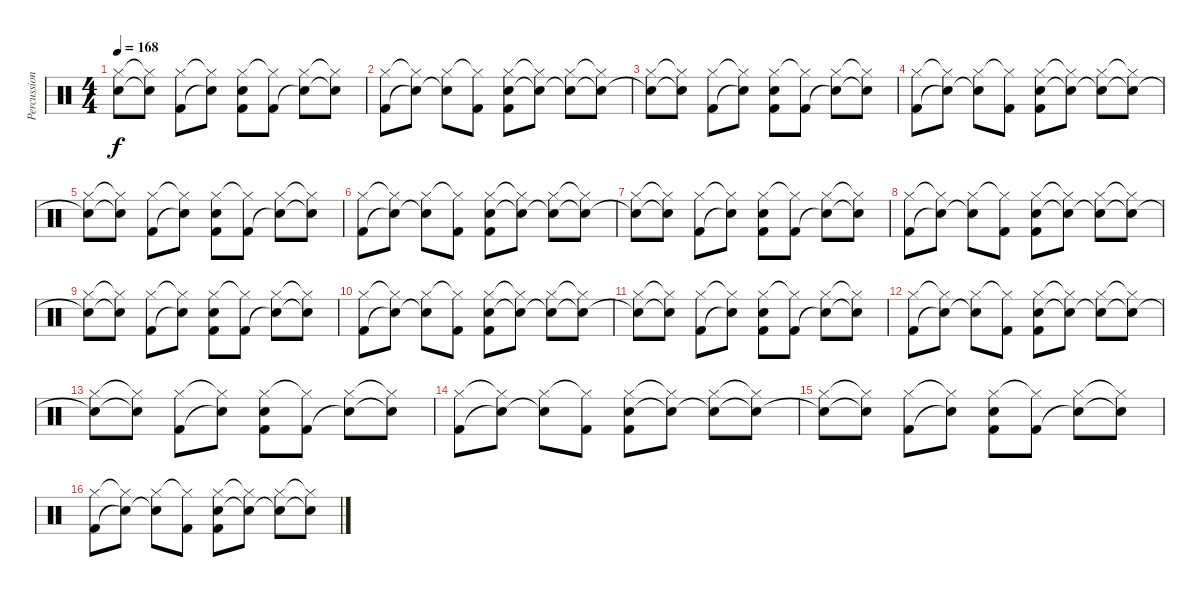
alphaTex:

\track ("Percussion" "Percussion") {instrument percussion}
\staff {score}
\articulation defaults
\ts (4 4)
\tempo 168
\clef neutral
\ks c
("Hi-Hat (closed)" "Snare (hit)"{t}).8{dy f} ("Hi-Hat (closed)"{t} "Snare (hit)"{t}).8 ("Hi-Hat (closed)" "Kick (hit) 2").8 ("Hi-Hat (closed)"{t} "Snare (hit)"{t}).8 ("Hi-Hat (closed)" "Electric Snare (hit)" "Kick (hit) 2").8 ("Hi-Hat (closed)"{t} "Kick (hit) 2").8 ("Hi-Hat (closed)" "Snare (hit)"{t}).8 ("Hi-Hat (closed)"{t} "Snare (hit)"{t}).8 |
("Hi-Hat (closed)" "Kick (hit) 2").8 ("Hi-Hat (closed)"{t} "Snare (hit)"{t}).8 ("Hi-Hat (closed)" "Snare (hit)"{t}).8 ("Hi-Hat (closed)"{t} "Kick (hit) 2").8 ("Hi-Hat (closed)" "Electric Snare (hit)" "Kick (hit) 2").8 ("Hi-Hat (closed)"{t} "Snare (hit)"{t}).8 ("Hi-Hat (closed)" "Snare (hit)"{t}).8 ("Hi-Hat (closed)"{t} "Snare (hit)"{t}).8 |
("Hi-Hat (closed)" "Snare (hit)"{t}).8 ("Hi-Hat (closed)"{t} "Snare (hit)"{t}).8 ("Hi-Hat (closed)" "Kick (hit) 2").8 ("Hi-Hat (closed)"{t} "Snare (hit)"{t}).8 ("Hi-Hat (closed)" "Electric Snare (hit)" "Kick (hit) 2").8 ("Hi-Hat (closed)"{t} "Kick (hit) 2").8 ("Hi-Hat (closed)" "Snare (hit)"{t}).8 ("Hi-Hat (closed)"{t} "Snare (hit)"{t}).8 |
("Hi-Hat (closed)" "Kick (hit) 2").8 ("Hi-Hat (closed)"{t} "Snare (hit)"{t}).8 ("Hi-Hat (closed)" "Snare (hit)"{t}).8 ("Hi-Hat (closed)"{t} "Kick (hit) 2").8 ("Hi-Hat (closed)" "Electric Snare (hit)" "Kick (hit) 2").8 ("Hi-Hat (closed)"{t} "Snare (hit)"{t}).8 ("Hi-Hat (closed)" "Snare (hit)"{t}).8 ("Hi-Hat (closed)"{t} "Snare (hit)"{t}).8 |
("Hi-Hat (closed)" "Snare (hit)"{t}).8 ("Hi-Hat (closed)"{t} "Snare (hit)"{t}).8 ("Hi-Hat (closed)" "Kick (hit) 2").8 ("Hi-Hat (closed)"{t} "Snare (hit)"{t}).8 ("Hi-Hat (closed)" "Electric Snare (hit)" "Kick (hit) 2").8 ("Hi-Hat (closed)"{t} "Kick (hit) 2").8 ("Hi-Hat (closed)" "Snare (hit)"{t}).8 ("Hi-Hat (closed)"{t} "Snare (hit)"{t}).8 |
("Hi-Hat (closed)" "Kick (hit) 2").8 ("Hi-Hat (closed)"{t} "Snare (hit)"{t}).8 ("Hi-Hat (closed)" "Snare (hit)"{t}).8 ("Hi-Hat (closed)"{t} "Kick (hit) 2").8 ("Hi-Hat (closed)" "Electric Snare (hit)" "Kick (hit) 2").8 ("Hi-Hat (closed)"{t} "Snare (hit)"{t}).8 ("Hi-Hat (closed)" "Snare (hit)"{t}).8 ("Hi-Hat (closed)"{t} "Snare (hit)"{t}).8 |
("Hi-Hat (closed)" "Snare (hit)"{t}).8 ("Hi-Hat (closed)"{t} "Snare (hit)"{t}).8 ("Hi-Hat (closed)" "Kick (hit) 2").8 ("Hi-Hat (closed)"{t} "Snare (hit)"{t}).8 ("Hi-Hat (closed)" "Electric Snare (hit)" "Kick (hit) 2").8 ("Hi-Hat (closed)"{t} "Kick (hit) 2").8 ("Hi-Hat (closed)" "Snare (hit)"{t}).8 ("Hi-Hat (closed)"{t} "Snare (hit)"{t}).8 |
("Hi-Hat (closed)" "Kick (hit) 2").8 ("Hi-Hat (closed)"{t} "Snare (hit)"{t}).8 ("Hi-Hat (closed)" "Snare (hit)"{t}).8 ("Hi-Hat (closed)"{t} "Kick (hit) 2").8 ("Hi-Hat (closed)" "Electric Snare (hit)" "Kick (hit) 2").8 ("Hi-Hat (closed)"{t} "Snare (hit)"{t}).8 ("Hi-Hat (closed)" "Snare (hit)"{t}).8 ("Hi-Hat (closed)"{t} "Snare (hit)"{t}).8 |
("Hi-Hat (closed)" "Snare (hit)"{t}).8 ("Hi-Hat (closed)"{t} "Snare (hit)"{t}).8 ("Hi-Hat (closed)" "Kick (hit) 2").8 ("Hi-Hat (closed)"{t} "Snare (hit)"{t}).8 ("Hi-Hat (closed)" "Electric Snare (hit)" "Kick (hit) 2").8 ("Hi-Hat (closed)"{t} "Kick (hit) 2").8 ("Hi-Hat (closed)" "Snare (hit)"{t}).8 ("Hi-Hat (closed)"{t} "Snare (hit)"{t}).8 |
("Hi-Hat (closed)" "Kick (hit) 2").8 ("Hi-Hat (closed)"{t} "Snare (hit)"{t}).8 ("Hi-Hat (closed)" "Snare (hit)"{t}).8 ("Hi-Hat (closed)"{t} "Kick (hit) 2").8 ("Hi-Hat (closed)" "Electric Snare (hit)" "Kick (hit) 2").8 ("Hi-Hat (closed)"{t} "Snare (hit)"{t}).8 ("Hi-Hat (closed)" "Snare (hit)"{t}).8 ("Hi-Hat (closed)"{t} "Snare (hit)"{t}).8 |
("Hi-Hat (closed)" "Snare (hit)"{t}).8 ("Hi-Hat (closed)"{t} "Snare (hit)"{t}).8 ("Hi-Hat (closed)" "Kick (hit) 2").8 ("Hi-Hat (closed)"{t} "Snare (hit)"{t}).8 ("Hi-Hat (closed)" "Electric Snare (hit)" "Kick (hit) 2").8 ("Hi-Hat (closed)"{t} "Kick (hit) 2").8 ("Hi-Hat (closed)" "Snare (hit)"{t}).8 ("Hi-Hat (closed)"{t} "Snare (hit)"{t}).8 |
("Hi-Hat (closed)" "Kick (hit) 2").8 ("Hi-Hat (closed)"{t} "Snare (hit)"{t}).8 ("Hi-Hat (closed)" "Snare (hit)"{t}).8 ("Hi-Hat (closed)"{t} "Kick (hit) 2").8 ("Hi-Hat (closed)" "Electric Snare (hit)" "Kick (hit) 2").8 ("Hi-Hat (closed)"{t} "Snare (hit)"{t}).8 ("Hi-Hat (closed)" "Snare (hit)"{t}).8 ("Hi-Hat (closed)"{t} "Snare (hit)"{t}).8 |
("Hi-Hat (closed)" "Snare (hit)"{t}).8 ("Hi-Hat (closed)"{t} "Snare (hit)"{t}).8 ("Hi-Hat (closed)" "Kick (hit) 2").8 ("Hi-Hat (closed)"{t} "Snare (hit)"{t}).8 ("Hi-Hat (closed)" "Electric Snare (hit)" "Kick (hit) 2").8 ("Hi-Hat (closed)"{t} "Kick (hit) 2").8 ("Hi-Hat (closed)" "Snare (hit)"{t}).8 ("Hi-Hat (closed)"{t} "Snare (hit)"{t}).8 |
("Hi-Hat (closed)" "Kick (hit) 2").8 ("Hi-Hat (closed)"{t} "Snare (hit)"{t}).8 ("Hi-Hat (closed)" "Snare (hit)"{t}).8 ("Hi-Hat (closed)"{t} "Kick (hit) 2").8 ("Hi-Hat (closed)" "Electric Snare (hit)" "Kick (hit) 2").8 ("Hi-Hat (closed)"{t} "Snare (hit)"{t}).8 ("Hi-Hat (closed)" "Snare (hit)"{t}).8 ("Hi-Hat (closed)"{t} "Snare (hit)"{t}).8 |
("Hi-Hat (closed)" "Snare (hit)"{t}).8 ("Hi-Hat (closed)"{t} "Snare (hit)"{t}).8 ("Hi-Hat (closed)" "Kick (hit) 2").8 ("Hi-Hat (closed)"{t} "Snare (hit)"{t}).8 ("Hi-Hat (closed)" "Electric Snare (hit)" "Kick (hit) 2").8 ("Hi-Hat (closed)"{t} "Kick (hit) 2").8 ("Hi-Hat (closed)" "Snare (hit)"{t}).8 ("Hi-Hat (closed)"{t} "Snare (hit)"{t}).8 |
("Hi-Hat (closed)" "Kick (hit) 2").8 ("Hi-Hat (closed)"{t} "Snare (hit)"{t}).8 ("Hi-Hat (closed)" "Snare (hit)"{t}).8 ("Hi-Hat (closed)"{t} "Kick (hit) 2").8 ("Hi-Hat (closed)" "Electric Snare (hit)" "Kick (hit) 2").8 ("Hi-Hat (closed)"{t} "Snare (hit)"{t}).8 ("Hi-Hat (closed)" "Snare (hit)"{t}).8 ("Hi-Hat (closed)"{t} "Snare (hit)"{t}).8
